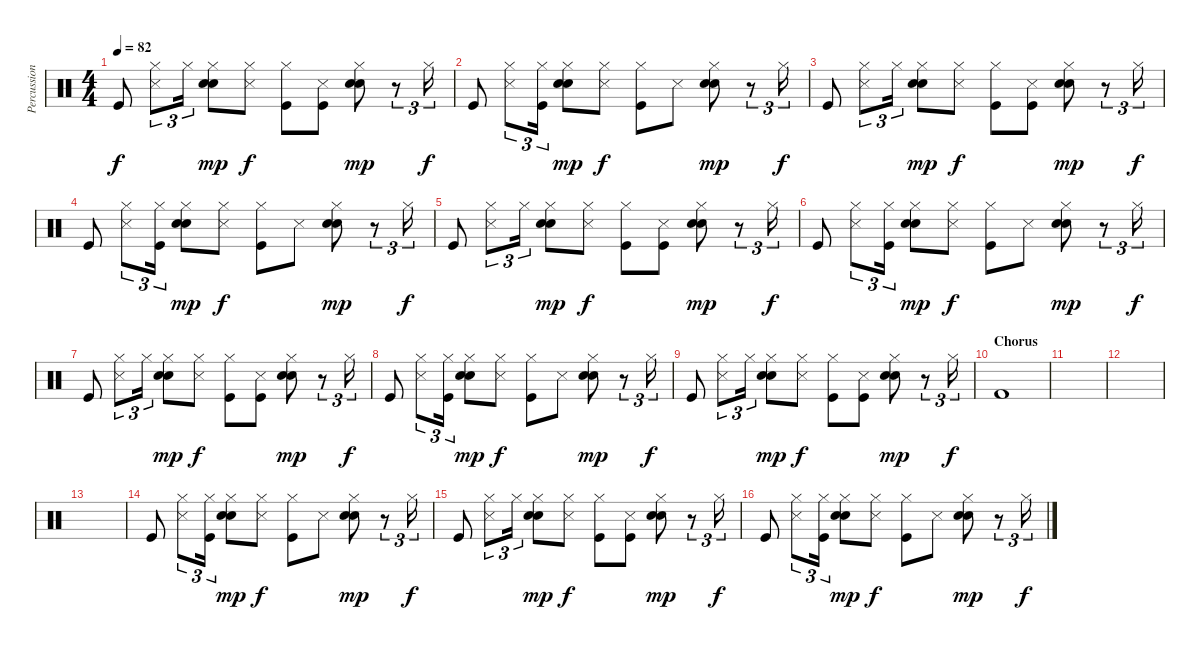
\track ("Percussion" "Percussion") {instrument percussion}
\staff {score}
\articulation defaults
\ts (4 4)
\tempo 82
\clef neutral
\ks c "Kick (hit)".8{dy f}
("Hi-Hat (closed)" "Snare (side stick) 3").8{tu (3 2)} "Hi-Hat (closed)".16{tu (3 2)} ("Hi-Hat (closed)" "Hand Clap (hit)" "Electric Snare (hit)").8{dy mp} ("Hi-Hat (closed)" "Snare (side stick) 3").8{dy f} ("Hi-Hat (closed)" "Kick (hit)").8 ("Snare (side stick) 3" "Kick (hit)").8 ("Hi-Hat (closed)" "Hand Clap (hit)" "Electric Snare (hit)").8{dy mp} r.8{tu (3 2)} "Hi-Hat (closed)".16{tu (3 2) dy f} |
"Kick (hit)".8{volume 13} ("Hi-Hat (closed)" "Snare (side stick) 3").8{tu (3 2)} ("Hi-Hat (closed)" "Kick (hit)").16{tu (3 2)} ("Hi-Hat (closed)" "Hand Clap (hit)" "Electric Snare (hit)").8{dy mp} ("Hi-Hat (closed)" "Snare (side stick) 3").8{dy f} ("Hi-Hat (closed)" "Kick (hit)").8 "Snare (side stick) 3".8 ("Hi-Hat (closed)" "Hand Clap (hit)" "Electric Snare (hit)").8{dy mp} r.8{tu (3 2)} "Hi-Hat (closed)".16{tu (3 2) dy f} |
"Kick (hit)".8 ("Hi-Hat (closed)" "Snare (side stick) 3").8{tu (3 2)} "Hi-Hat (closed)".16{tu (3 2)} ("Hi-Hat (closed)" "Hand Clap (hit)" "Electric Snare (hit)").8{dy mp} ("Hi-Hat (closed)" "Snare (side stick) 3").8{dy f} ("Hi-Hat (closed)" "Kick (hit)").8 ("Snare (side stick) 3" "Kick (hit)").8 ("Hi-Hat (closed)" "Hand Clap (hit)" "Electric Snare (hit)").8{dy mp} r.8{tu (3 2)} "Hi-Hat (closed)".16{tu (3 2) dy f} |
"Kick (hit)".8{volume 13} ("Hi-Hat (closed)" "Snare (side stick) 3").8{tu (3 2)} ("Hi-Hat (closed)" "Kick (hit)").16{tu (3 2)} ("Hi-Hat (closed)" "Hand Clap (hit)" "Electric Snare (hit)").8{dy mp} ("Hi-Hat (closed)" "Snare (side stick) 3").8{dy f} ("Hi-Hat (closed)" "Kick (hit)").8 "Snare (side stick) 3".8 ("Hi-Hat (closed)" "Hand Clap (hit)" "Electric Snare (hit)").8{dy mp} r.8{tu (3 2)} "Hi-Hat (closed)".16{tu (3 2) dy f} |
"Kick (hit)".8 ("Hi-Hat (closed)" "Snare (side stick) 3").8{tu (3 2)} "Hi-Hat (closed)".16{tu (3 2)} ("Hi-Hat (closed)" "Hand Clap (hit)" "Electric Snare (hit)").8{dy mp} ("Hi-Hat (closed)" "Snare (side stick) 3").8{dy f} ("Hi-Hat (closed)" "Kick (hit)").8 ("Snare (side stick) 3" "Kick (hit)").8 ("Hi-Hat (closed)" "Hand Clap (hit)" "Electric Snare (hit)").8{dy mp} r.8{tu (3 2)} "Hi-Hat (closed)".16{tu (3 2) dy f} |
"Kick (hit)".8{volume 13} ("Hi-Hat (closed)" "Snare (side stick) 3").8{tu (3 2)} ("Hi-Hat (closed)" "Kick (hit)").16{tu (3 2)} ("Hi-Hat (closed)" "Hand Clap (hit)" "Electric Snare (hit)").8{dy mp} ("Hi-Hat (closed)" "Snare (side stick) 3").8{dy f} ("Hi-Hat (closed)" "Kick (hit)").8 "Snare (side stick) 3".8 ("Hi-Hat (closed)" "Hand Clap (hit)" "Electric Snare (hit)").8{dy mp} r.8{tu (3 2)} "Hi-Hat (closed)".16{tu (3 2) dy f} |
"Kick (hit)".8 ("Hi-Hat (closed)" "Snare (side stick) 3").8{tu (3 2)} "Hi-Hat (closed)".16{tu (3 2)} ("Hi-Hat (closed)" "Hand Clap (hit)" "Electric Snare (hit)").8{dy mp} ("Hi-Hat (closed)" "Snare (side stick) 3").8{dy f} ("Hi-Hat (closed)" "Kick (hit)").8 ("Snare (side stick) 3" "Kick (hit)").8 ("Hi-Hat (closed)" "Hand Clap (hit)" "Electric Snare (hit)").8{dy mp} r.8{tu (3 2)} "Hi-Hat (closed)".16{tu (3 2) dy f} |
"Kick (hit)".8{volume 13} ("Hi-Hat (closed)" "Snare (side stick) 3").8{tu (3 2)} ("Hi-Hat (closed)" "Kick (hit)").16{tu (3 2)} ("Hi-Hat (closed)" "Hand Clap (hit)" "Electric Snare (hit)").8{dy mp} ("Hi-Hat (closed)" "Snare (side stick) 3").8{dy f} ("Hi-Hat (closed)" "Kick (hit)").8 "Snare (side stick) 3".8 ("Hi-Hat (closed)" "Hand Clap (hit)" "Electric Snare (hit)").8{dy mp} r.8{tu (3 2)} "Hi-Hat (closed)".16{tu (3 2) dy f} |
"Kick (hit)".8 ("Hi-Hat (closed)" "Snare (side stick) 3").8{tu (3 2)} "Hi-Hat (closed)".16{tu (3 2)} ("Hi-Hat (closed)" "Hand Clap (hit)" "Electric Snare (hit)").8{dy mp} ("Hi-Hat (closed)" "Snare (side stick) 3").8{dy f} ("Hi-Hat (closed)" "Kick (hit)").8 ("Snare (side stick) 3" "Kick (hit)").8 ("Hi-Hat (closed)" "Hand Clap (hit)" "Electric Snare (hit)").8{dy mp} r.8{tu (3 2)} "Hi-Hat (closed)".16{tu (3 2) dy f} |
\section ("" "Chorus")
"Kick (hit) 2".1 |
|
|
|
"Kick (hit)".8 ("Hi-Hat (closed)" "Snare (side stick) 3").8{tu (3 2)} ("Hi-Hat (closed)" "Kick (hit)").16{tu (3 2)} ("Hi-Hat (closed)" "Hand Clap (hit)" "Electric Snare (hit)").8{dy mp} ("Hi-Hat (closed)" "Snare (side stick) 3").8{dy f} ("Hi-Hat (closed)" "Kick (hit)").8 "Snare (side stick) 3".8 ("Hi-Hat (closed)" "Hand Clap (hit)" "Electric Snare (hit)").8{dy mp} r.8{tu (3 2)} "Hi-Hat (closed)".16{tu (3 2) dy f} |
"Kick (hit)".8 ("Hi-Hat (closed)" "Snare (side stick) 3").8{tu (3 2)} "Hi-Hat (closed)".16{tu (3 2)} ("Hi-Hat (closed)" "Hand Clap (hit)" "Electric Snare (hit)").8{dy mp} ("Hi-Hat (closed)" "Snare (side stick) 3").8{dy f} ("Hi-Hat (closed)" "Kick (hit)").8 ("Snare (side stick) 3" "Kick (hit)").8 ("Hi-Hat (closed)" "Hand Clap (hit)" "Electric Snare (hit)").8{dy mp} r.8{tu (3 2)} "Hi-Hat (closed)".16{tu (3 2) dy f} |
"Kick (hit)".8 ("Hi-Hat (closed)" "Snare (side stick) 3").8{tu (3 2)} ("Hi-Hat (closed)" "Kick (hit)").16{tu (3 2)} ("Hi-Hat (closed)" "Hand Clap (hit)" "Electric Snare (hit)").8{dy mp} ("Hi-Hat (closed)" "Snare (side stick) 3").8{dy f} ("Hi-Hat (closed)" "Kick (hit)").8 "Snare (side stick) 3".8 ("Hi-Hat (closed)" "Hand Clap (hit)" "Electric Snare (hit)").8{dy mp} r.8{tu (3 2)} "Hi-Hat (closed)".16{tu (3 2) dy f}
